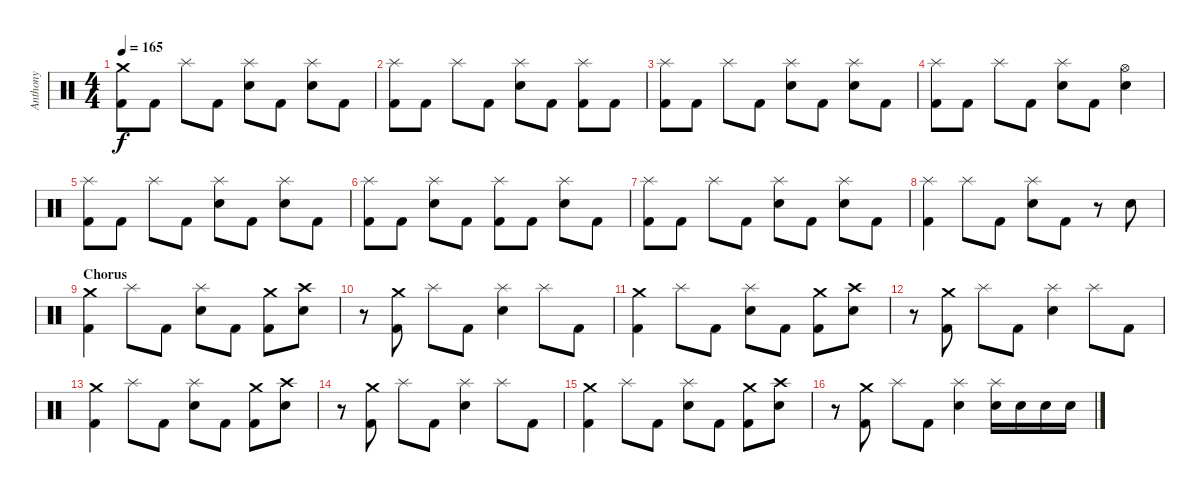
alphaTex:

\track ("Anthony" "Anthony") {instrument percussion}
\staff {score}
\articulation defaults
\ts (4 4)
\tempo 165
\clef neutral
\ks c
("Crash medium (hit)" "Kick (hit) 2").8{dy f} "Kick (hit) 2".8 "Splash (hit)".8 "Kick (hit) 2".8 ("Splash (hit)" "Electric Snare (hit)").8 "Kick (hit) 2".8 ("Splash (hit)" "Electric Snare (hit)").8 "Kick (hit) 2".8 |
("Splash (hit)" "Kick (hit) 2").8 "Kick (hit) 2".8 "Splash (hit)".8 "Kick (hit) 2".8 ("Splash (hit)" "Electric Snare (hit)").8 "Kick (hit) 2".8 ("Splash (hit)" "Kick (hit) 2").8 "Kick (hit) 2".8 |
("Splash (hit)" "Kick (hit) 2").8 "Kick (hit) 2".8 "Splash (hit)".8 "Kick (hit) 2".8 ("Splash (hit)" "Electric Snare (hit)").8 "Kick (hit) 2".8 ("Splash (hit)" "Electric Snare (hit)").8 "Kick (hit) 2".8 |
("Splash (hit)" "Kick (hit) 2").8 "Kick (hit) 2".8 "Splash (hit)".8 "Kick (hit) 2".8 ("Splash (hit)" "Electric Snare (hit)").8 "Kick (hit) 2".8 ("Hi-Hat (open)" "Electric Snare (hit)").4 |
("Splash (hit)" "Kick (hit) 2").8 "Kick (hit) 2".8 "Splash (hit)".8 "Kick (hit) 2".8 ("Splash (hit)" "Electric Snare (hit)").8 "Kick (hit) 2".8 ("Splash (hit)" "Electric Snare (hit)").8 "Kick (hit) 2".8 |
("Splash (hit)" "Kick (hit) 2").8 "Kick (hit) 2".8 ("Splash (hit)" "Electric Snare (hit)").8 "Kick (hit) 2".8 ("Splash (hit)" "Kick (hit) 2").8 "Kick (hit) 2".8 ("Splash (hit)" "Electric Snare (hit)").8 "Kick (hit) 2".8 |
("Splash (hit)" "Kick (hit) 2").8 "Kick (hit) 2".8 "Splash (hit)".8 "Kick (hit) 2".8 ("Splash (hit)" "Electric Snare (hit)").8 "Kick (hit) 2".8 ("Splash (hit)" "Electric Snare (hit)").8 "Kick (hit) 2".8 |
("Splash (hit)" "Kick (hit) 2").4 "Splash (hit)".8 "Kick (hit) 2".8 ("Splash (hit)" "Electric Snare (hit)").8 "Kick (hit) 2".8 r.8 "Electric Snare (hit)".8 |
\section ("" "Chorus")
("Crash medium (hit)" "Kick (hit) 2").4 "Splash (hit)".8 "Kick (hit) 2".8 ("Splash (hit)" "Electric Snare (hit)").8 "Kick (hit) 2".8 ("Crash medium (hit)" "Kick (hit) 2").8 ("Crash high (hit)" "Electric Snare (hit)").8 |
r.8 ("Crash medium (hit)" "Kick (hit) 2").8 "Splash (hit)".8 "Kick (hit) 2".8 ("Splash (hit)" "Electric Snare (hit)").4 "Splash (hit)".8 "Kick (hit) 2".8 |
("Crash medium (hit)" "Kick (hit) 2").4 "Splash (hit)".8 "Kick (hit) 2".8 ("Splash (hit)" "Electric Snare (hit)").8 "Kick (hit) 2".8 ("Crash medium (hit)" "Kick (hit) 2").8 ("Crash high (hit)" "Electric Snare (hit)").8 |
r.8 ("Crash medium (hit)" "Kick (hit) 2").8 "Splash (hit)".8 "Kick (hit) 2".8 ("Splash (hit)" "Electric Snare (hit)").4 "Splash (hit)".8 "Kick (hit) 2".8 |
("Crash medium (hit)" "Kick (hit) 2").4 "Splash (hit)".8 "Kick (hit) 2".8 ("Splash (hit)" "Electric Snare (hit)").8 "Kick (hit) 2".8 ("Crash medium (hit)" "Kick (hit) 2").8 ("Crash high (hit)" "Electric Snare (hit)").8 |
r.8 ("Crash medium (hit)" "Kick (hit) 2").8 "Splash (hit)".8 "Kick (hit) 2".8 ("Splash (hit)" "Electric Snare (hit)").4 "Splash (hit)".8 "Kick (hit) 2".8 |
("Crash medium (hit)" "Kick (hit) 2").4 "Splash (hit)".8 "Kick (hit) 2".8 ("Splash (hit)" "Electric Snare (hit)").8 "Kick (hit) 2".8 ("Crash medium (hit)" "Kick (hit) 2").8 ("Crash high (hit)" "Electric Snare (hit)").8 |
r.8 ("Crash medium (hit)" "Kick (hit) 2").8 "Splash (hit)".8 "Kick (hit) 2".8 ("Splash (hit)" "Electric Snare (hit)").4 ("Splash (hit)" "Electric Snare (hit)").16 "Electric Snare (hit)".16 "Electric Snare (hit)".16 "Electric Snare (hit)".16
